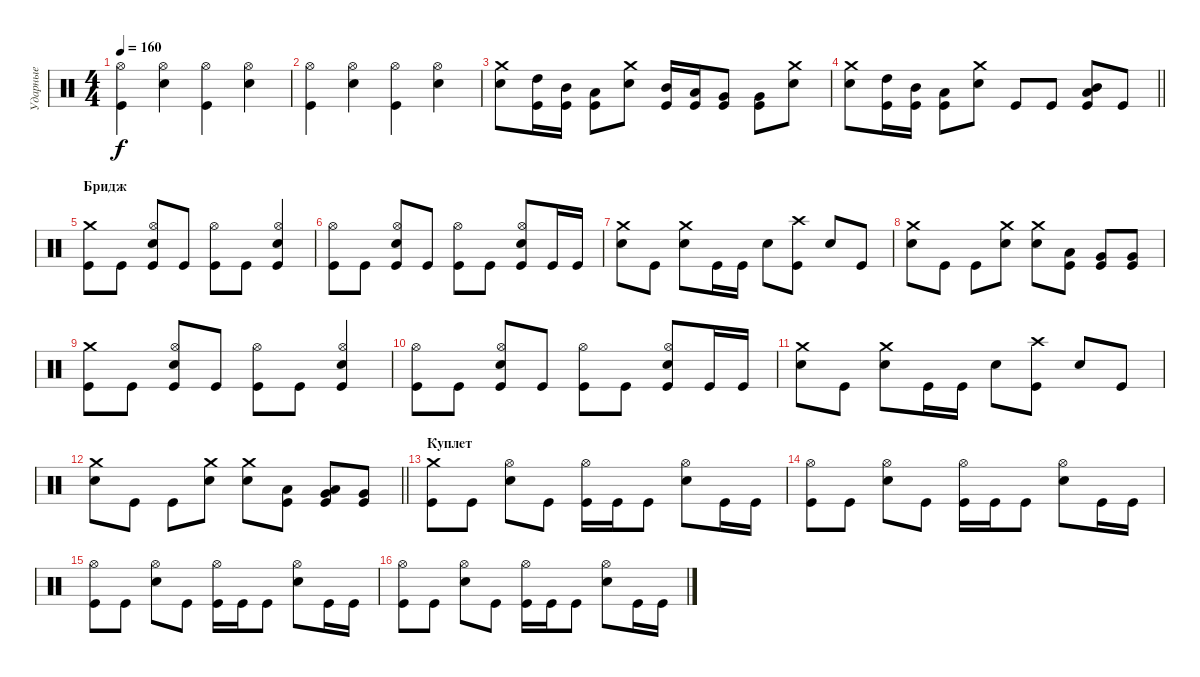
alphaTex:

\track ("Ударные" "Ударные") {instrument percussion}
\staff {score}
\articulation defaults
\ts (4 4)
\tempo 160
\clef neutral
\ks c
("Kick (hit)" "Hi-Hat (open)").4{dy f} ("Snare (hit) 2" "Hi-Hat (open)").4 ("Kick (hit)" "Hi-Hat (open)").4 ("Snare (hit) 2" "Hi-Hat (open)").4 |
("Kick (hit)" "Hi-Hat (open)").4 ("Snare (hit) 2" "Hi-Hat (open)").4 ("Kick (hit)" "Hi-Hat (open)").4 ("Snare (hit) 2" "Hi-Hat (open)").4 |
("Snare (hit) 2" "Crash medium (hit)").8 ("Kick (hit)" "High Tom (hit)").16 ("Kick (hit)" "Mid Tom (hit)").16 ("Kick (hit)" "Low Tom (hit)").8 ("Snare (hit) 2" "Crash medium (hit)").8 ("Kick (hit)" "Mid Tom (hit)").16 ("Kick (hit)" "Low Tom (hit)").16 ("Kick (hit)" "Very Low Tom (hit)").8 ("Kick (hit)" "Very Low Tom (hit)").8 ("Snare (hit) 2" "Crash medium (hit)").8 |
\barLineRight lightlight
("Snare (hit) 2" "Crash medium (hit)").8 ("Kick (hit)" "High Tom (hit)").16 ("Kick (hit)" "Mid Tom (hit)").16 ("Kick (hit)" "Low Tom (hit)").8 ("Snare (hit) 2" "Crash medium (hit)").8 "Kick (hit)".8 "Kick (hit)".8 ("Kick (hit)" "Low Tom (hit)" "Mid Tom (hit)").8{bd 60} "Kick (hit)".8 |
\section ("" "Бридж")
("Kick (hit)" "Crash medium (hit)").8 "Kick (hit)".8 ("Kick (hit)" "Snare (hit) 2" "Hi-Hat (open)").8 "Kick (hit)".8 ("Kick (hit)" "Hi-Hat (open)").8 "Kick (hit)".8 ("Kick (hit)" "Snare (hit) 2" "Hi-Hat (open)").4 |
("Kick (hit)" "Hi-Hat (open)").8 "Kick (hit)".8 ("Kick (hit)" "Snare (hit) 2" "Hi-Hat (open)").8 "Kick (hit)".8 ("Kick (hit)" "Hi-Hat (open)").8 "Kick (hit)".8 ("Kick (hit)" "Snare (hit) 2" "Hi-Hat (open)").8 "Kick (hit)".16 "Kick (hit)".16 |
("Snare (hit) 2" "Crash medium (hit)").8 "Kick (hit)".8 ("Snare (hit) 2" "Crash medium (hit)").8 "Kick (hit)".16 "Kick (hit)".16 "Snare (hit) 2".8 ("Kick (hit)" "Crash high (hit)").8 "Snare (hit) 2".8 "Kick (hit)".8 |
("Snare (hit) 2" "Crash medium (hit)").8 "Kick (hit)".8 "Kick (hit)".8 ("Snare (hit) 2" "Crash medium (hit)").8 ("Snare (hit) 2" "Crash medium (hit)").8 ("Kick (hit)" "Low Tom (hit)").8 ("Kick (hit)" "Very Low Tom (hit)").8 ("Kick (hit)" "Very Low Tom (hit)").8 |
("Kick (hit)" "Crash medium (hit)").8 "Kick (hit)".8 ("Kick (hit)" "Snare (hit) 2" "Hi-Hat (open)").8 "Kick (hit)".8 ("Kick (hit)" "Hi-Hat (open)").8 "Kick (hit)".8 ("Kick (hit)" "Snare (hit) 2" "Hi-Hat (open)").4 |
("Kick (hit)" "Hi-Hat (open)").8 "Kick (hit)".8 ("Kick (hit)" "Snare (hit) 2" "Hi-Hat (open)").8 "Kick (hit)".8 ("Kick (hit)" "Hi-Hat (open)").8 "Kick (hit)".8 ("Kick (hit)" "Snare (hit) 2" "Hi-Hat (open)").8 "Kick (hit)".16 "Kick (hit)".16 |
("Snare (hit) 2" "Crash medium (hit)").8 "Kick (hit)".8 ("Snare (hit) 2" "Crash medium (hit)").8 "Kick (hit)".16 "Kick (hit)".16 "Snare (hit) 2".8 ("Kick (hit)" "Crash high (hit)").8 "Snare (hit) 2".8 "Kick (hit)".8 |
\barLineRight lightlight
("Snare (hit) 2" "Crash medium (hit)").8 "Kick (hit)".8 "Kick (hit)".8 ("Snare (hit) 2" "Crash medium (hit)").8 ("Snare (hit) 2" "Crash medium (hit)").8 ("Kick (hit)" "Low Tom (hit)").8 ("Kick (hit)" "Very Low Tom (hit)" "Low Tom (hit)").8{bd 60} ("Kick (hit)" "Very Low Tom (hit)").8 |
\section ("" "Куплет")
("Kick (hit)" "Crash medium (hit)").8 "Kick (hit)".8 ("Snare (hit) 2" "Hi-Hat (open)").8 "Kick (hit)".8 ("Kick (hit)" "Hi-Hat (open)").16 "Kick (hit)".16 "Kick (hit)".8 ("Snare (hit) 2" "Hi-Hat (open)").8 "Kick (hit)".16 "Kick (hit)".16 |
("Kick (hit)" "Hi-Hat (open)").8 "Kick (hit)".8 ("Snare (hit) 2" "Hi-Hat (open)").8 "Kick (hit)".8 ("Kick (hit)" "Hi-Hat (open)").16 "Kick (hit)".16 "Kick (hit)".8 ("Snare (hit) 2" "Hi-Hat (open)").8 "Kick (hit)".16 "Kick (hit)".16 |
("Kick (hit)" "Hi-Hat (open)").8 "Kick (hit)".8 ("Snare (hit) 2" "Hi-Hat (open)").8 "Kick (hit)".8 ("Kick (hit)" "Hi-Hat (open)").16 "Kick (hit)".16 "Kick (hit)".8 ("Snare (hit) 2" "Hi-Hat (open)").8 "Kick (hit)".16 "Kick (hit)".16 |
("Kick (hit)" "Hi-Hat (open)").8 "Kick (hit)".8 ("Snare (hit) 2" "Hi-Hat (open)").8 "Kick (hit)".8 ("Kick (hit)" "Hi-Hat (open)").16 "Kick (hit)".16 "Kick (hit)".8 ("Snare (hit) 2" "Hi-Hat (open)").8 "Kick (hit)".16 "Kick (hit)".16
